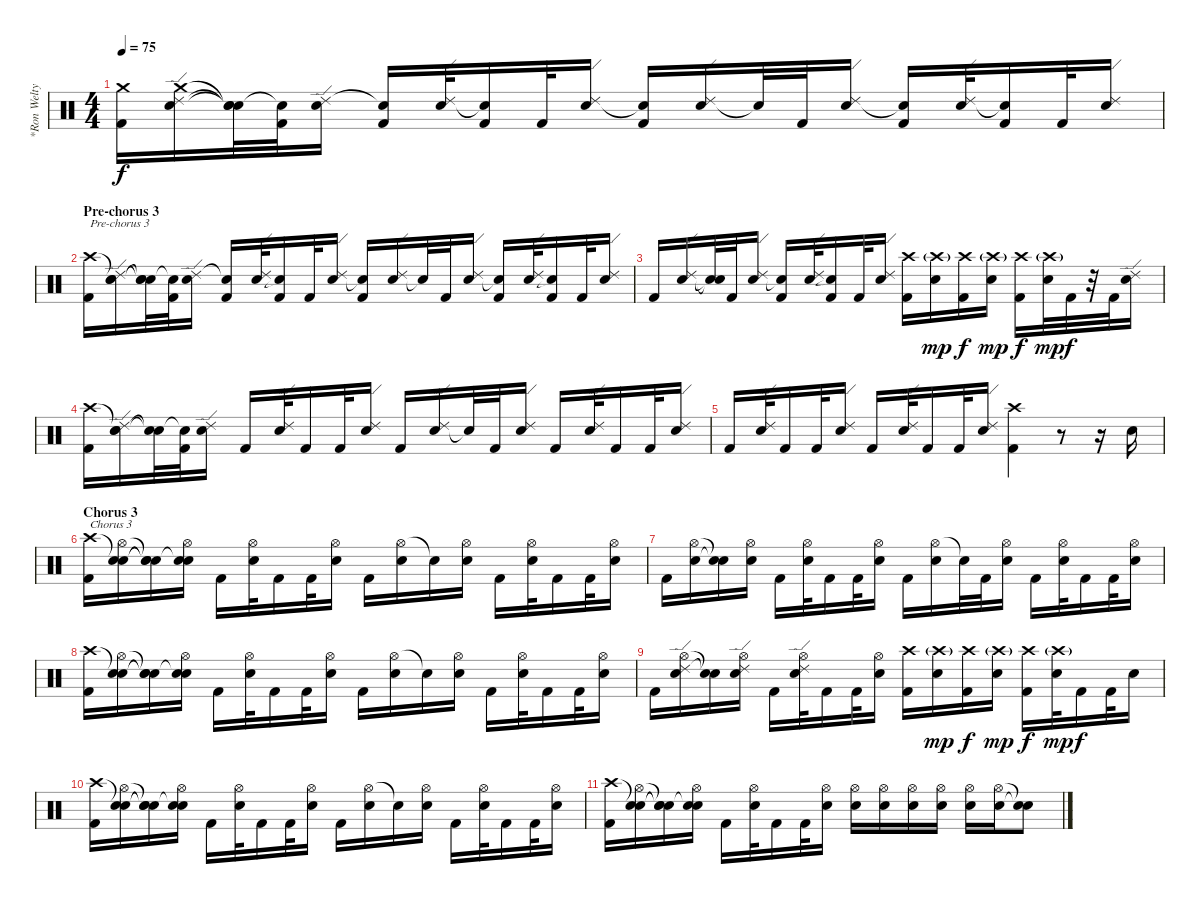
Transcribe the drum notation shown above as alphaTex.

\track ("*Ron Welty (Ex-drummer)" "*Ron Welty") {instrument percussion}
\staff {score}
\articulation defaults
\ts (4 4)
\tempo 75
\clef neutral
\ks c
("Crash medium (hit)" "Kick (hit) 2").16{dy f} ("Crash medium (hit)" "Ride (edge) 2" "Electric Snare (hit)").16 ("Snare (hit)"{t} "Snare (hit)"{t} "Snare (hit)"{t}).32 ("Snare (hit)"{t} "Kick (hit) 2").32 ("Ride (edge) 2" "Electric Snare (hit)").16 ("Snare (hit)"{t} "Kick (hit) 2").16 ("Ride (edge) 2" "Electric Snare (hit)").32 ("Snare (hit)"{t} "Kick (hit) 2").16 "Kick (hit) 2".32 ("Ride (edge) 2" "Electric Snare (hit)").16 ("Snare (hit)"{t} "Kick (hit) 2").16 ("Ride (edge) 2" "Electric Snare (hit)").16 "Snare (hit)"{t}.32 "Kick (hit) 2".32 ("Ride (edge) 2" "Electric Snare (hit)").16 ("Snare (hit)"{t} "Kick (hit) 2").16 ("Ride (edge) 2" "Electric Snare (hit)").32 ("Snare (hit)"{t} "Kick (hit) 2").16 "Kick (hit) 2".32 ("Ride (edge) 2" "Electric Snare (hit)").16 |
\section ("" "Pre-chorus 3")
("Crash high (hit)" "Kick (hit) 2").16{txt "Pre-chorus 3"} ("Snare (hit)"{t} "Ride (edge) 2" "Electric Snare (hit)").16 ("Snare (hit)"{t} "Snare (hit)"{t} "Snare (hit)"{t}).32 ("Snare (hit)"{t} "Kick (hit) 2").32 ("Ride (edge) 2" "Electric Snare (hit)").16 ("Snare (hit)"{t} "Kick (hit) 2").16 ("Ride (edge) 2" "Electric Snare (hit)").32 ("Snare (hit)"{t} "Kick (hit) 2").16 "Kick (hit) 2".32 ("Ride (edge) 2" "Electric Snare (hit)").16 ("Snare (hit)"{t} "Kick (hit) 2").16 ("Ride (edge) 2" "Electric Snare (hit)").16 "Snare (hit)"{t}.32 "Kick (hit) 2".32 ("Ride (edge) 2" "Electric Snare (hit)").16 ("Snare (hit)"{t} "Kick (hit) 2").16 ("Ride (edge) 2" "Electric Snare (hit)").32 ("Snare (hit)"{t} "Kick (hit) 2").16 "Kick (hit) 2".32 ("Ride (edge) 2" "Electric Snare (hit)").16 |
"Kick (hit) 2".16 ("Ride (edge) 2" "Electric Snare (hit)").16 ("Snare (hit)"{t} "Snare (hit)"{t}).32 "Kick (hit) 2".32 ("Ride (edge) 2" "Electric Snare (hit)").16 ("Snare (hit)"{t} "Kick (hit) 2").16 ("Ride (edge) 2" "Electric Snare (hit)").32 ("Snare (hit)"{t} "Kick (hit) 2").16 "Kick (hit) 2".32 ("Ride (edge) 2" "Electric Snare (hit)").16 ("Crash high (hit)" "Kick (hit) 2").16 ("Crash high (hit)"{g} "Electric Snare (hit)").16{dy mp} ("Crash high (hit)" "Kick (hit) 2").16{dy f} ("Crash high (hit)"{g} "Electric Snare (hit)").16{dy mp} ("Crash high (hit)" "Kick (hit) 2").16{dy f} ("Crash high (hit)"{g} "Electric Snare (hit)").32{dy mp} "Kick (hit) 2".32{dy f} r.32 "Kick (hit) 2".32 ("Ride (edge) 2" "Electric Snare (hit)").16 |
("Crash high (hit)" "Kick (hit) 2").16 ("Snare (hit)"{t} "Ride (edge) 2" "Electric Snare (hit)").16 ("Snare (hit)"{t} "Snare (hit)"{t}).32 ("Snare (hit)"{t} "Kick (hit) 2").32 ("Ride (edge) 2" "Electric Snare (hit)").16 "Kick (hit) 2".16 ("Ride (edge) 2" "Electric Snare (hit)").32 "Kick (hit) 2".16 "Kick (hit) 2".32 ("Ride (edge) 2" "Electric Snare (hit)").16 "Kick (hit) 2".16 ("Ride (edge) 2" "Electric Snare (hit)").16 "Snare (hit)"{t}.32 "Kick (hit) 2".32 ("Ride (edge) 2" "Electric Snare (hit)").16 "Kick (hit) 2".16 ("Ride (edge) 2" "Electric Snare (hit)").32 "Kick (hit) 2".16 "Kick (hit) 2".32 ("Ride (edge) 2" "Electric Snare (hit)").16 |
"Kick (hit) 2".16 ("Ride (edge) 2" "Electric Snare (hit)").32 "Kick (hit) 2".16 "Kick (hit) 2".32 ("Ride (edge) 2" "Electric Snare (hit)").16 "Kick (hit) 2".16 ("Ride (edge) 2" "Electric Snare (hit)").32 "Kick (hit) 2".16 "Kick (hit) 2".32 ("Ride (edge) 2" "Electric Snare (hit)").16 ("Crash high (hit)" "Kick (hit) 2").4 r.8 r.16 "Electric Snare (hit)".16 |
\section ("" "Chorus 3")
("Crash high (hit)" "Kick (hit) 2").16{txt "Chorus 3"} ("Snare (hit)"{t} "Hi-Hat (open)" "Electric Snare (hit)").16 ("Snare (hit)"{t} "Snare (hit)"{t} "Snare (hit)"{t}).16 ("Snare (hit)"{t} "Hi-Hat (open)" "Electric Snare (hit)").16 "Kick (hit) 2".16 ("Hi-Hat (open)" "Electric Snare (hit)").32 "Kick (hit) 2".16 "Kick (hit) 2".32 ("Hi-Hat (open)" "Electric Snare (hit)").16 "Kick (hit) 2".16 ("Hi-Hat (open)" "Electric Snare (hit)").16 "Snare (hit)"{t}.16 ("Hi-Hat (open)" "Electric Snare (hit)").16 "Kick (hit) 2".16 ("Hi-Hat (open)" "Electric Snare (hit)").32 "Kick (hit) 2".16 "Kick (hit) 2".32 ("Hi-Hat (open)" "Electric Snare (hit)").16 |
"Kick (hit) 2".16 ("Hi-Hat (open)" "Electric Snare (hit)").16 ("Snare (hit)"{t} "Snare (hit)"{t}).16 ("Hi-Hat (open)" "Electric Snare (hit)").16 "Kick (hit) 2".16 ("Hi-Hat (open)" "Electric Snare (hit)").32 "Kick (hit) 2".16 "Kick (hit) 2".32 ("Hi-Hat (open)" "Electric Snare (hit)").16 "Kick (hit) 2".16 ("Hi-Hat (open)" "Electric Snare (hit)").16 "Snare (hit)"{t}.32 "Kick (hit) 2".32 ("Hi-Hat (open)" "Electric Snare (hit)").16 "Kick (hit) 2".16 ("Hi-Hat (open)" "Electric Snare (hit)").32 "Kick (hit) 2".16 "Kick (hit) 2".32 ("Hi-Hat (open)" "Electric Snare (hit)").16 |
("Crash high (hit)" "Kick (hit) 2").16 ("Snare (hit)"{t} "Hi-Hat (open)" "Electric Snare (hit)").16 ("Snare (hit)"{t} "Snare (hit)"{t} "Snare (hit)"{t}).16 ("Snare (hit)"{t} "Hi-Hat (open)" "Electric Snare (hit)").16 "Kick (hit) 2".16 ("Hi-Hat (open)" "Electric Snare (hit)").32 "Kick (hit) 2".16 "Kick (hit) 2".32 ("Hi-Hat (open)" "Electric Snare (hit)").16 "Kick (hit) 2".16 ("Hi-Hat (open)" "Electric Snare (hit)").16 "Snare (hit)"{t}.16 ("Hi-Hat (open)" "Electric Snare (hit)").16 "Kick (hit) 2".16 ("Hi-Hat (open)" "Electric Snare (hit)").32 "Kick (hit) 2".16 "Kick (hit) 2".32 ("Hi-Hat (open)" "Electric Snare (hit)").16 |
"Kick (hit) 2".16 ("Ride (edge) 2" "Hi-Hat (open)" "Electric Snare (hit)").16 ("Snare (hit)"{t} "Snare (hit)"{t}).16 ("Ride (edge) 2" "Hi-Hat (open)" "Electric Snare (hit)").16 "Kick (hit) 2".16 ("Ride (edge) 2" "Hi-Hat (open)" "Electric Snare (hit)").32 "Kick (hit) 2".16 "Kick (hit) 2".32 ("Hi-Hat (open)" "Electric Snare (hit)").16 ("Crash high (hit)" "Kick (hit) 2").16 ("Crash high (hit)"{g} "Electric Snare (hit)").16{dy mp} ("Crash high (hit)" "Kick (hit) 2").16{dy f} ("Crash high (hit)"{g} "Electric Snare (hit)").16{dy mp} ("Crash high (hit)" "Kick (hit) 2").16{dy f} ("Crash high (hit)"{g} "Electric Snare (hit)").32{dy mp} "Kick (hit) 2".16{dy f} "Kick (hit) 2".32 "Electric Snare (hit)".16 |
("Crash high (hit)" "Kick (hit) 2").16 ("Snare (hit)"{t} "Hi-Hat (open)" "Electric Snare (hit)").16 ("Snare (hit)"{t} "Snare (hit)"{t} "Snare (hit)"{t}).16 ("Snare (hit)"{t} "Hi-Hat (open)" "Electric Snare (hit)").16 "Kick (hit) 2".16 ("Hi-Hat (open)" "Electric Snare (hit)").32 "Kick (hit) 2".16 "Kick (hit) 2".32 ("Hi-Hat (open)" "Electric Snare (hit)").16 "Kick (hit) 2".16 ("Hi-Hat (open)" "Electric Snare (hit)").16 "Snare (hit)"{t}.16 ("Hi-Hat (open)" "Electric Snare (hit)").16 "Kick (hit) 2".16 ("Hi-Hat (open)" "Electric Snare (hit)").32 "Kick (hit) 2".16 "Kick (hit) 2".32 ("Hi-Hat (open)" "Electric Snare (hit)").16 |
("Crash high (hit)" "Kick (hit) 2").16 ("Snare (hit)"{t} "Hi-Hat (open)" "Electric Snare (hit)").16 ("Snare (hit)"{t} "Snare (hit)"{t} "Snare (hit)"{t}).16 ("Snare (hit)"{t} "Hi-Hat (open)" "Electric Snare (hit)").16 "Kick (hit) 2".16 ("Hi-Hat (open)" "Electric Snare (hit)").32 "Kick (hit) 2".16 "Kick (hit) 2".32 ("Hi-Hat (open)" "Electric Snare (hit)").16 ("Hi-Hat (open)" "Electric Snare (hit)").16 ("Hi-Hat (open)" "Electric Snare (hit)").16 ("Hi-Hat (open)" "Electric Snare (hit)").16 ("Hi-Hat (open)" "Electric Snare (hit)").16 ("Hi-Hat (open)" "Electric Snare (hit)").16 ("Hi-Hat (open)" "Electric Snare (hit)").16 ("Snare (hit)"{t} "Snare (hit)"{t}).8
